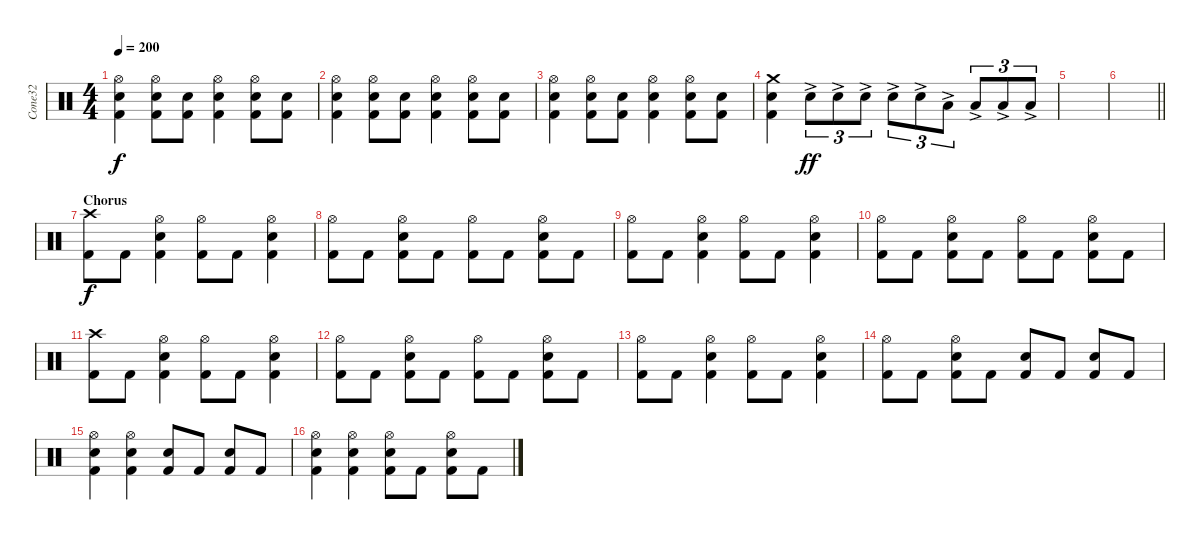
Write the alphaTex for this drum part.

\track ("Cone32" "Cone32") {instrument percussion}
\staff {score}
\articulation defaults
\ts (4 4)
\tempo 200
\clef neutral
\ks c
("Hi-Hat (open)" "Snare (hit) 2" "Kick (hit) 2").4{dy f} ("Hi-Hat (open)" "Snare (hit) 2" "Kick (hit) 2").8 ("Snare (hit) 2" "Kick (hit) 2").8 ("Hi-Hat (open)" "Snare (hit) 2" "Kick (hit) 2").4 ("Hi-Hat (open)" "Snare (hit) 2" "Kick (hit) 2").8 ("Snare (hit) 2" "Kick (hit) 2").8 |
("Hi-Hat (open)" "Snare (hit) 2" "Kick (hit) 2").4 ("Hi-Hat (open)" "Snare (hit) 2" "Kick (hit) 2").8 ("Snare (hit) 2" "Kick (hit) 2").8 ("Hi-Hat (open)" "Snare (hit) 2" "Kick (hit) 2").4 ("Hi-Hat (open)" "Snare (hit) 2" "Kick (hit) 2").8 ("Snare (hit) 2" "Kick (hit) 2").8 |
("Hi-Hat (open)" "Snare (hit) 2" "Kick (hit) 2").4 ("Hi-Hat (open)" "Snare (hit) 2" "Kick (hit) 2").8 ("Snare (hit) 2" "Kick (hit) 2").8 ("Hi-Hat (open)" "Snare (hit) 2" "Kick (hit) 2").4 ("Hi-Hat (open)" "Snare (hit) 2" "Kick (hit) 2").8 ("Snare (hit) 2" "Kick (hit) 2").8 |
("Crash medium (hit)" "Snare (hit) 2" "Kick (hit) 2").4 "Snare (hit) 2"{ac}.8{tu (3 2) dy ff} "Snare (hit) 2"{ac}.8{tu (3 2)} "Snare (hit) 2"{ac}.8{tu (3 2)} "Snare (hit) 2"{ac}.8{tu (3 2)} "Snare (hit) 2"{ac}.8{tu (3 2)} "Low Floor Tom (hit)"{ac}.8{tu (3 2)} "Low Floor Tom (hit)"{ac}.8{tu (3 2)} "Low Floor Tom (hit)"{ac}.8{tu (3 2)} "Low Floor Tom (hit)"{ac}.8{tu (3 2)} |
|
\barLineRight lightlight
|
\section ("" "Chorus")
("Crash high (hit)" "Kick (hit) 2").8{dy f} "Kick (hit) 2".8 ("Hi-Hat (open)" "Snare (hit) 2" "Kick (hit) 2").4 ("Hi-Hat (open)" "Kick (hit) 2").8 "Kick (hit) 2".8 ("Hi-Hat (open)" "Snare (hit) 2" "Kick (hit) 2").4 |
("Hi-Hat (open)" "Kick (hit) 2").8 "Kick (hit) 2".8 ("Hi-Hat (open)" "Snare (hit) 2" "Kick (hit) 2").8 "Kick (hit) 2".8 ("Hi-Hat (open)" "Kick (hit) 2").8 "Kick (hit) 2".8 ("Hi-Hat (open)" "Snare (hit) 2" "Kick (hit) 2").8 "Kick (hit) 2".8 |
("Hi-Hat (open)" "Kick (hit) 2").8 "Kick (hit) 2".8 ("Hi-Hat (open)" "Snare (hit) 2" "Kick (hit) 2").4 ("Hi-Hat (open)" "Kick (hit) 2").8 "Kick (hit) 2".8 ("Hi-Hat (open)" "Snare (hit) 2" "Kick (hit) 2").4 |
("Hi-Hat (open)" "Kick (hit) 2").8 "Kick (hit) 2".8 ("Hi-Hat (open)" "Snare (hit) 2" "Kick (hit) 2").8 "Kick (hit) 2".8 ("Hi-Hat (open)" "Kick (hit) 2").8 "Kick (hit) 2".8 ("Hi-Hat (open)" "Snare (hit) 2" "Kick (hit) 2").8 "Kick (hit) 2".8 |
("Crash high (hit)" "Kick (hit) 2").8 "Kick (hit) 2".8 ("Hi-Hat (open)" "Snare (hit) 2" "Kick (hit) 2").4 ("Hi-Hat (open)" "Kick (hit) 2").8 "Kick (hit) 2".8 ("Hi-Hat (open)" "Snare (hit) 2" "Kick (hit) 2").4 |
("Hi-Hat (open)" "Kick (hit) 2").8 "Kick (hit) 2".8 ("Hi-Hat (open)" "Snare (hit) 2" "Kick (hit) 2").8 "Kick (hit) 2".8 ("Hi-Hat (open)" "Kick (hit) 2").8 "Kick (hit) 2".8 ("Hi-Hat (open)" "Snare (hit) 2" "Kick (hit) 2").8 "Kick (hit) 2".8 |
("Hi-Hat (open)" "Kick (hit) 2").8 "Kick (hit) 2".8 ("Hi-Hat (open)" "Snare (hit) 2" "Kick (hit) 2").4 ("Hi-Hat (open)" "Kick (hit) 2").8 "Kick (hit) 2".8 ("Hi-Hat (open)" "Snare (hit) 2" "Kick (hit) 2").4 |
("Hi-Hat (open)" "Kick (hit) 2").8 "Kick (hit) 2".8 ("Hi-Hat (open)" "Snare (hit) 2" "Kick (hit) 2").8 "Kick (hit) 2".8 ("Snare (hit) 2" "Kick (hit) 2").8 "Kick (hit) 2".8 ("Snare (hit) 2" "Kick (hit) 2").8 "Kick (hit) 2".8 |
("Hi-Hat (open)" "Snare (hit) 2" "Kick (hit) 2").4 ("Hi-Hat (open)" "Snare (hit) 2" "Kick (hit) 2").4 ("Snare (hit) 2" "Kick (hit) 2").8 "Kick (hit) 2".8 ("Snare (hit) 2" "Kick (hit) 2").8 "Kick (hit) 2".8 |
("Hi-Hat (open)" "Snare (hit) 2" "Kick (hit) 2").4 ("Hi-Hat (open)" "Snare (hit) 2" "Kick (hit) 2").4 ("Hi-Hat (open)" "Snare (hit) 2" "Kick (hit) 2").8 "Kick (hit) 2".8 ("Hi-Hat (open)" "Snare (hit) 2" "Kick (hit) 2").8 "Kick (hit) 2".8
